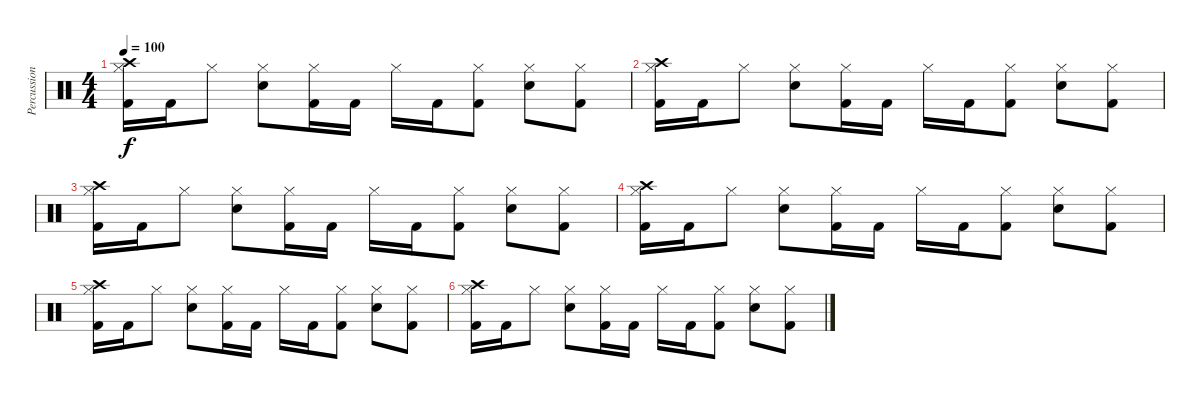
\track ("Percussion" "Percussion") {instrument percussion}
\staff {score}
\articulation defaults
\ts (4 4)
\tempo 100
\clef neutral
\ks c
("Crash high (hit)" "Hi-Hat (closed)" "Kick (hit) 2").16{dy f} "Kick (hit) 2".16 "Hi-Hat (closed)".8 ("Hi-Hat (closed)" "Snare (hit) 2").8 ("Hi-Hat (closed)" "Kick (hit) 2").16 "Kick (hit) 2".16 "Hi-Hat (closed)".16 "Kick (hit) 2".16 ("Hi-Hat (closed)" "Kick (hit) 2").8 ("Hi-Hat (closed)" "Snare (hit) 2").8 ("Hi-Hat (closed)" "Kick (hit) 2").8 |
("Crash high (hit)" "Hi-Hat (closed)" "Kick (hit) 2").16 "Kick (hit) 2".16 "Hi-Hat (closed)".8 ("Hi-Hat (closed)" "Snare (hit) 2").8 ("Hi-Hat (closed)" "Kick (hit) 2").16 "Kick (hit) 2".16 "Hi-Hat (closed)".16 "Kick (hit) 2".16 ("Hi-Hat (closed)" "Kick (hit) 2").8 ("Hi-Hat (closed)" "Snare (hit) 2").8 ("Hi-Hat (closed)" "Kick (hit) 2").8 |
("Crash high (hit)" "Hi-Hat (closed)" "Kick (hit) 2").16 "Kick (hit) 2".16 "Hi-Hat (closed)".8 ("Hi-Hat (closed)" "Snare (hit) 2").8 ("Hi-Hat (closed)" "Kick (hit) 2").16 "Kick (hit) 2".16 "Hi-Hat (closed)".16 "Kick (hit) 2".16 ("Hi-Hat (closed)" "Kick (hit) 2").8 ("Hi-Hat (closed)" "Snare (hit) 2").8 ("Hi-Hat (closed)" "Kick (hit) 2").8 |
("Crash high (hit)" "Hi-Hat (closed)" "Kick (hit) 2").16 "Kick (hit) 2".16 "Hi-Hat (closed)".8 ("Hi-Hat (closed)" "Snare (hit) 2").8 ("Hi-Hat (closed)" "Kick (hit) 2").16 "Kick (hit) 2".16 "Hi-Hat (closed)".16 "Kick (hit) 2".16 ("Hi-Hat (closed)" "Kick (hit) 2").8 ("Hi-Hat (closed)" "Snare (hit) 2").8 ("Hi-Hat (closed)" "Kick (hit) 2").8 |
("Crash high (hit)" "Hi-Hat (closed)" "Kick (hit) 2").16 "Kick (hit) 2".16 "Hi-Hat (closed)".8 ("Hi-Hat (closed)" "Snare (hit) 2").8 ("Hi-Hat (closed)" "Kick (hit) 2").16 "Kick (hit) 2".16 "Hi-Hat (closed)".16 "Kick (hit) 2".16 ("Hi-Hat (closed)" "Kick (hit) 2").8 ("Hi-Hat (closed)" "Snare (hit) 2").8 ("Hi-Hat (closed)" "Kick (hit) 2").8 |
("Crash high (hit)" "Hi-Hat (closed)" "Kick (hit) 2").16 "Kick (hit) 2".16 "Hi-Hat (closed)".8 ("Hi-Hat (closed)" "Snare (hit) 2").8 ("Hi-Hat (closed)" "Kick (hit) 2").16 "Kick (hit) 2".16 "Hi-Hat (closed)".16 "Kick (hit) 2".16 ("Hi-Hat (closed)" "Kick (hit) 2").8 ("Hi-Hat (closed)" "Snare (hit) 2").8 ("Hi-Hat (closed)" "Kick (hit) 2").8
